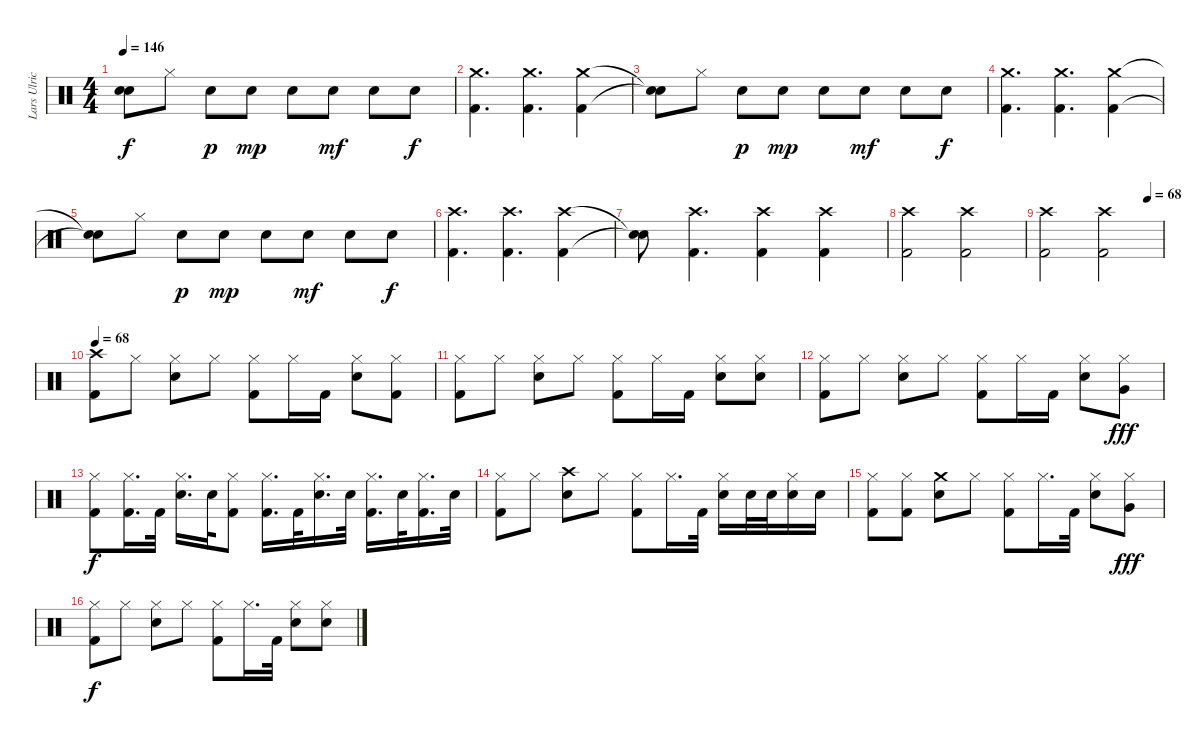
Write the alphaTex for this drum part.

\track ("Lars Ulrich" "Lars Ulric") {instrument percussion}
\staff {score}
\articulation defaults
\ts (4 4)
\tempo 146
\clef neutral
\ks c
("Snare (hit)"{t} "Snare (hit)"{t}).8{dy f} "Hi-Hat (closed)".8 "Electric Snare (hit)".8{dy p} "Electric Snare (hit)".8{dy mp} "Electric Snare (hit)".8 "Electric Snare (hit)".8{dy mf} "Electric Snare (hit)".8 "Electric Snare (hit)".8{dy f} |
("Crash medium (hit)" "Kick (hit) 2").4{d} ("Crash medium (hit)" "Kick (hit) 2").4{d} ("Crash medium (hit)" "Kick (hit) 2").4 |
("Snare (hit)"{t} "Snare (hit)"{t}).8 "Hi-Hat (closed)".8 "Electric Snare (hit)".8{dy p} "Electric Snare (hit)".8{dy mp} "Electric Snare (hit)".8 "Electric Snare (hit)".8{dy mf} "Electric Snare (hit)".8 "Electric Snare (hit)".8{dy f} |
("Crash medium (hit)" "Kick (hit) 2").4{d} ("Crash medium (hit)" "Kick (hit) 2").4{d} ("Crash medium (hit)" "Kick (hit) 2").4 |
("Snare (hit)"{t} "Snare (hit)"{t}).8 "Hi-Hat (closed)".8 "Electric Snare (hit)".8{dy p} "Electric Snare (hit)".8{dy mp} "Electric Snare (hit)".8 "Electric Snare (hit)".8{dy mf} "Electric Snare (hit)".8 "Electric Snare (hit)".8{dy f} |
("Crash high (hit)" "Kick (hit) 2").4{d} ("Crash high (hit)" "Kick (hit) 2").4{d} ("Crash high (hit)" "Kick (hit) 2").4 |
("Snare (hit)"{t} "Snare (hit)"{t}).8 ("Crash high (hit)" "Kick (hit) 2").4{d} ("Crash high (hit)" "Kick (hit) 2").4 ("Crash high (hit)" "Kick (hit) 2").4 |
("Crash high (hit)" "Kick (hit) 2").2 ("Crash high (hit)" "Kick (hit) 2").2 |
\tempo (68 0.875)
("Crash high (hit)" "Kick (hit) 2").2 ("Crash high (hit)" "Kick (hit) 2").2 |
\tempo 68
("Crash high (hit)" "Kick (hit) 2").8 "Hi-Hat (closed)".8 ("Hi-Hat (closed)" "Electric Snare (hit)").8 "Hi-Hat (closed)".8 ("Hi-Hat (closed)" "Kick (hit) 2").8 "Hi-Hat (closed)".16 "Kick (hit) 2".16 ("Hi-Hat (closed)" "Electric Snare (hit)").8 ("Hi-Hat (closed)" "Kick (hit) 2").8 |
("Hi-Hat (closed)" "Kick (hit) 2").8 "Hi-Hat (closed)".8 ("Hi-Hat (closed)" "Electric Snare (hit)").8 "Hi-Hat (closed)".8 ("Hi-Hat (closed)" "Kick (hit) 2").8 "Hi-Hat (closed)".16 "Kick (hit) 2".16 ("Hi-Hat (closed)" "Electric Snare (hit)").8 ("Hi-Hat (closed)" "Electric Snare (hit)").8 |
("Hi-Hat (closed)" "Kick (hit) 2").8 "Hi-Hat (closed)".8 ("Hi-Hat (closed)" "Electric Snare (hit)").8 "Hi-Hat (closed)".8 ("Hi-Hat (closed)" "Kick (hit) 2").8 "Hi-Hat (closed)".16 "Kick (hit) 2".16 ("Hi-Hat (closed)" "Electric Snare (hit)").8 ("Hi-Hat (closed)" "Very Low Tom (hit)").8{dy fff} |
("Hi-Hat (closed)" "Kick (hit) 2").8{dy f} ("Hi-Hat (closed)" "Kick (hit) 2").16{d} "Kick (hit) 2".32 ("Hi-Hat (closed)" "Electric Snare (hit)").16{d} "Electric Snare (hit)".32 ("Hi-Hat (closed)" "Kick (hit) 2").8 ("Hi-Hat (closed)" "Kick (hit) 2").16{d} "Kick (hit) 2".32 ("Hi-Hat (closed)" "Electric Snare (hit)").16{d} "Electric Snare (hit)".32 ("Hi-Hat (closed)" "Kick (hit) 2").16{d} "Electric Snare (hit)".32 ("Hi-Hat (closed)" "Kick (hit) 2").16{d} "Electric Snare (hit)".32 |
("Hi-Hat (closed)" "Kick (hit) 2").8 "Hi-Hat (closed)".8 ("Crash high (hit)" "Electric Snare (hit)").8 "Hi-Hat (closed)".8 ("Hi-Hat (closed)" "Kick (hit) 2").8 "Hi-Hat (closed)".16{d} "Kick (hit) 2".32 ("Hi-Hat (closed)" "Electric Snare (hit)").16 "Electric Snare (hit)".32 "Electric Snare (hit)".32 ("Hi-Hat (closed)" "Electric Snare (hit)").16 "Electric Snare (hit)".16 |
("Hi-Hat (closed)" "Kick (hit) 2").8 ("Hi-Hat (closed)" "Kick (hit) 2").8 ("Crash medium (hit)" "Electric Snare (hit)").8 "Hi-Hat (closed)".8 ("Hi-Hat (closed)" "Kick (hit) 2").8 "Hi-Hat (closed)".16{d} "Kick (hit) 2".32 ("Hi-Hat (closed)" "Electric Snare (hit)").8 ("Hi-Hat (closed)" "Very Low Tom (hit)").8{dy fff} |
("Hi-Hat (closed)" "Kick (hit) 2").8{dy f} "Hi-Hat (closed)".8 ("Hi-Hat (closed)" "Electric Snare (hit)").8 "Hi-Hat (closed)".8 ("Hi-Hat (closed)" "Kick (hit) 2").8 "Hi-Hat (closed)".16{d} "Kick (hit) 2".32 ("Hi-Hat (closed)" "Electric Snare (hit)").8 ("Hi-Hat (closed)" "Electric Snare (hit)").8
